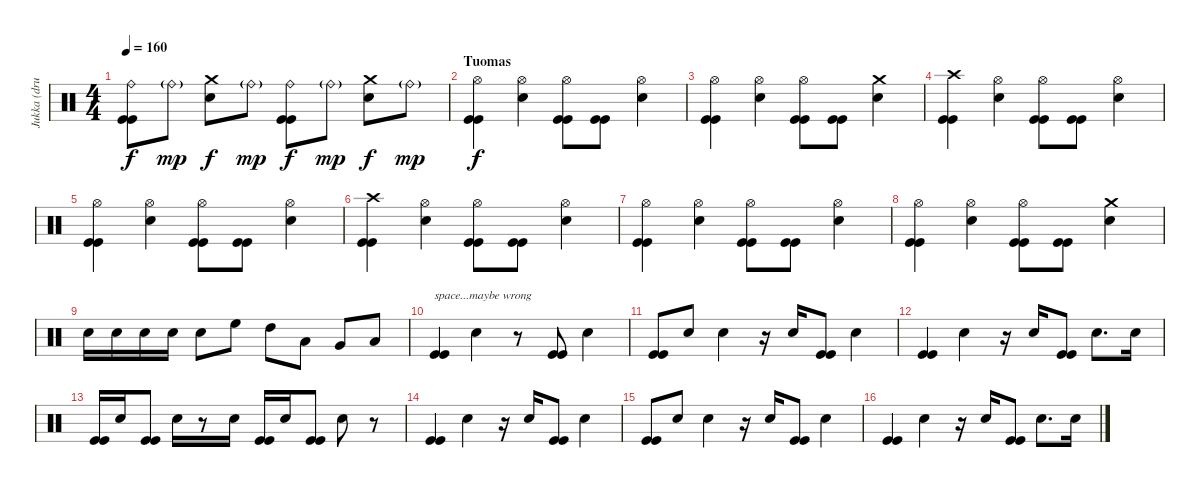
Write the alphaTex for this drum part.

\track ("Jukka (drums)" "Jukka (dru") {instrument percussion}
\staff {score}
\articulation defaults
\ts (4 4)
\tempo 160
\clef neutral
\ks c
("Ride (bell)" "Kick (hit)" "Kick (hit)").8{dy f} "Ride (bell)"{g}.8{dy mp} ("Crash medium (hit)" "Electric Snare (hit)").8{dy f} "Ride (bell)"{g}.8{dy mp} ("Ride (bell)" "Kick (hit)" "Kick (hit)").8{dy f} "Ride (bell)"{g}.8{dy mp} ("Crash medium (hit)" "Electric Snare (hit)").8{dy f} "Ride (bell)"{g}.8{dy mp} |
\section ("" "Tuomas")
("Hi-Hat (open)" "Kick (hit)" "Kick (hit)").4{dy f} ("Hi-Hat (open)" "Electric Snare (hit)").4 ("Hi-Hat (open)" "Kick (hit)" "Kick (hit)").8 ("Kick (hit)" "Kick (hit)").8 ("Hi-Hat (open)" "Electric Snare (hit)").4 |
("Hi-Hat (open)" "Kick (hit)" "Kick (hit)").4 ("Hi-Hat (open)" "Electric Snare (hit)").4 ("Hi-Hat (open)" "Kick (hit)" "Kick (hit)").8 ("Kick (hit)" "Kick (hit)").8 ("Crash medium (hit)" "Electric Snare (hit)").4 |
("Crash high (hit)" "Kick (hit)" "Kick (hit)").4 ("Hi-Hat (open)" "Electric Snare (hit)").4 ("Hi-Hat (open)" "Kick (hit)" "Kick (hit)").8 ("Kick (hit)" "Kick (hit)").8 ("Hi-Hat (open)" "Electric Snare (hit)").4 |
("Hi-Hat (open)" "Kick (hit)" "Kick (hit)").4 ("Hi-Hat (open)" "Electric Snare (hit)").4 ("Hi-Hat (open)" "Kick (hit)" "Kick (hit)").8 ("Kick (hit)" "Kick (hit)").8 ("Hi-Hat (open)" "Electric Snare (hit)").4 |
("Crash high (hit)" "Kick (hit)" "Kick (hit)").4 ("Hi-Hat (open)" "Electric Snare (hit)").4 ("Hi-Hat (open)" "Kick (hit)" "Kick (hit)").8 ("Kick (hit)" "Kick (hit)").8 ("Hi-Hat (open)" "Electric Snare (hit)").4 |
("Hi-Hat (open)" "Kick (hit)" "Kick (hit)").4 ("Hi-Hat (open)" "Electric Snare (hit)").4 ("Hi-Hat (open)" "Kick (hit)" "Kick (hit)").8 ("Kick (hit)" "Kick (hit)").8 ("Hi-Hat (open)" "Electric Snare (hit)").4 |
("Hi-Hat (open)" "Kick (hit)" "Kick (hit)").4 ("Hi-Hat (open)" "Electric Snare (hit)").4 ("Hi-Hat (open)" "Kick (hit)" "Kick (hit)").8 ("Kick (hit)" "Kick (hit)").8 ("Crash medium (hit)" "Electric Snare (hit)").4 |
"Electric Snare (hit)".16 "Electric Snare (hit)".16 "Electric Snare (hit)".16 "Electric Snare (hit)".16 "Electric Snare (hit)".8 "High Floor Tom (hit)".8 "High Tom (hit)".8 "Low Tom (hit)".8 "Very Low Tom (hit)".8 "Low Floor Tom (hit)".8 |
("Kick (hit)" "Kick (hit)").4{txt "space...maybe wrong" volume 8} "Electric Snare (hit)".4 r.8 ("Kick (hit)" "Kick (hit)").8 "Electric Snare (hit)".4 |
("Kick (hit)" "Kick (hit)").8 "Electric Snare (hit)".8 "Electric Snare (hit)".4 r.16 "Electric Snare (hit)".16 ("Kick (hit)" "Kick (hit)").8 "Electric Snare (hit)".4 |
("Kick (hit)" "Kick (hit)").4 "Electric Snare (hit)".4 r.16 "Electric Snare (hit)".16 ("Kick (hit)" "Kick (hit)").8 "Electric Snare (hit)".8{d} "Electric Snare (hit)".16 |
("Kick (hit)" "Kick (hit)").16 "Electric Snare (hit)".16 ("Kick (hit)" "Kick (hit)").8 "Electric Snare (hit)".16 r.8 "Electric Snare (hit)".16 ("Kick (hit)" "Kick (hit)").16 "Electric Snare (hit)".16 ("Kick (hit)" "Kick (hit)").8 "Electric Snare (hit)".8 r.8 |
("Kick (hit)" "Kick (hit)").4 "Electric Snare (hit)".4 r.16 "Electric Snare (hit)".16 ("Kick (hit)" "Kick (hit)").8 "Electric Snare (hit)".4 |
("Kick (hit)" "Kick (hit)").8 "Electric Snare (hit)".8 "Electric Snare (hit)".4 r.16 "Electric Snare (hit)".16 ("Kick (hit)" "Kick (hit)").8 "Electric Snare (hit)".4 |
("Kick (hit)" "Kick (hit)").4 "Electric Snare (hit)".4 r.16 "Electric Snare (hit)".16 ("Kick (hit)" "Kick (hit)").8 "Electric Snare (hit)".8{d} "Electric Snare (hit)".16
